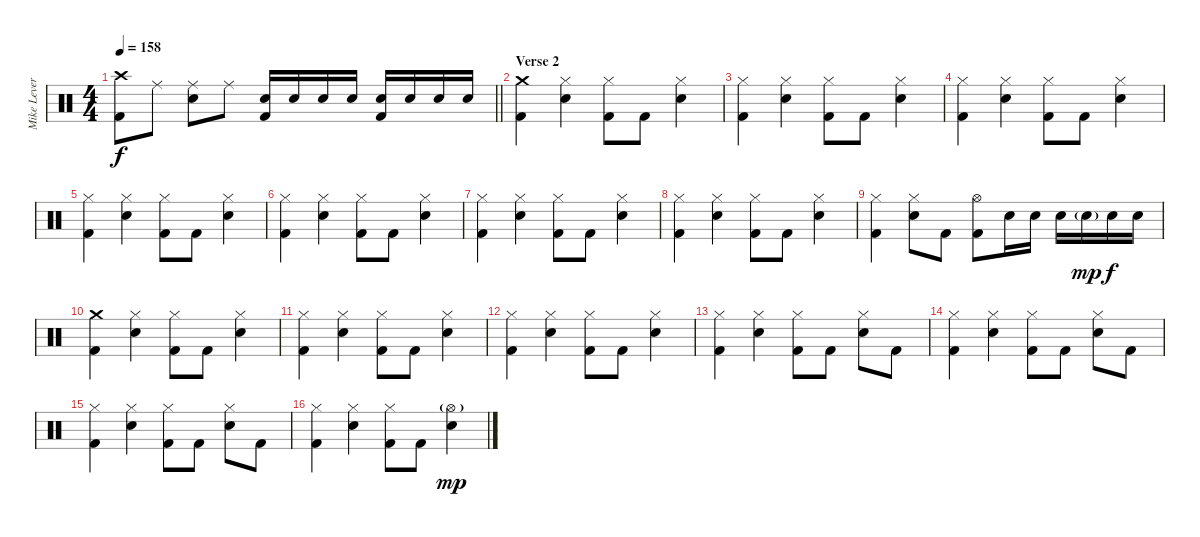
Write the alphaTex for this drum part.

\track ("Mike Leverence - Drums" "Mike Lever") {instrument percussion}
\staff {score}
\articulation defaults
\ts (4 4)
\tempo 158
\clef neutral
\barLineRight lightlight
\ks c
("Crash high (hit)" "Kick (hit) 2").8{dy f} "Ride (middle)".8 ("Ride (middle)" "Electric Snare (hit)").8 "Ride (middle)".8 ("Electric Snare (hit)" "Kick (hit) 2").16 "Electric Snare (hit)".16 "Electric Snare (hit)".16 "Electric Snare (hit)".16 ("Electric Snare (hit)" "Kick (hit) 2").16 "Electric Snare (hit)".16 "Electric Snare (hit)".16 "Electric Snare (hit)".16 |
\section ("" "Verse 2")
("Crash medium (hit)" "Kick (hit) 2").4 ("Hi-Hat (closed)" "Electric Snare (hit)").4 ("Hi-Hat (closed)" "Kick (hit) 2").8 "Kick (hit) 2".8 ("Hi-Hat (closed)" "Electric Snare (hit)").4 |
("Hi-Hat (closed)" "Kick (hit) 2").4 ("Hi-Hat (closed)" "Electric Snare (hit)").4 ("Hi-Hat (closed)" "Kick (hit) 2").8 "Kick (hit) 2".8 ("Hi-Hat (closed)" "Electric Snare (hit)").4 |
("Hi-Hat (closed)" "Kick (hit) 2").4 ("Hi-Hat (closed)" "Electric Snare (hit)").4 ("Hi-Hat (closed)" "Kick (hit) 2").8 "Kick (hit) 2".8 ("Hi-Hat (closed)" "Electric Snare (hit)").4 |
("Hi-Hat (closed)" "Kick (hit) 2").4 ("Hi-Hat (closed)" "Electric Snare (hit)").4 ("Hi-Hat (closed)" "Kick (hit) 2").8 "Kick (hit) 2".8 ("Hi-Hat (closed)" "Electric Snare (hit)").4 |
("Hi-Hat (closed)" "Kick (hit) 2").4 ("Hi-Hat (closed)" "Electric Snare (hit)").4 ("Hi-Hat (closed)" "Kick (hit) 2").8 "Kick (hit) 2".8 ("Hi-Hat (closed)" "Electric Snare (hit)").4 |
("Hi-Hat (closed)" "Kick (hit) 2").4 ("Hi-Hat (closed)" "Electric Snare (hit)").4 ("Hi-Hat (closed)" "Kick (hit) 2").8 "Kick (hit) 2".8 ("Hi-Hat (closed)" "Electric Snare (hit)").4 |
("Hi-Hat (closed)" "Kick (hit) 2").4 ("Hi-Hat (closed)" "Electric Snare (hit)").4 ("Hi-Hat (closed)" "Kick (hit) 2").8 "Kick (hit) 2".8 ("Hi-Hat (closed)" "Electric Snare (hit)").4 |
("Hi-Hat (closed)" "Kick (hit) 2").4 ("Hi-Hat (closed)" "Electric Snare (hit)").8 "Kick (hit) 2".8 ("Hi-Hat (open)" "Kick (hit) 2").8 "Electric Snare (hit)".16 "Electric Snare (hit)".16 "Electric Snare (hit)".16 "Electric Snare (hit)"{g}.16{dy mp} "Electric Snare (hit)".16{dy f} "Electric Snare (hit)".16 |
("Crash medium (hit)" "Kick (hit) 2").4 ("Hi-Hat (closed)" "Electric Snare (hit)").4 ("Hi-Hat (closed)" "Kick (hit) 2").8 "Kick (hit) 2".8 ("Hi-Hat (closed)" "Electric Snare (hit)").4 |
("Hi-Hat (closed)" "Kick (hit) 2").4 ("Hi-Hat (closed)" "Electric Snare (hit)").4 ("Hi-Hat (closed)" "Kick (hit) 2").8 "Kick (hit) 2".8 ("Hi-Hat (closed)" "Electric Snare (hit)").4 |
("Hi-Hat (closed)" "Kick (hit) 2").4 ("Hi-Hat (closed)" "Electric Snare (hit)").4 ("Hi-Hat (closed)" "Kick (hit) 2").8 "Kick (hit) 2".8 ("Hi-Hat (closed)" "Electric Snare (hit)").4 |
("Hi-Hat (closed)" "Kick (hit) 2").4 ("Hi-Hat (closed)" "Electric Snare (hit)").4 ("Hi-Hat (closed)" "Kick (hit) 2").8 "Kick (hit) 2".8 ("Hi-Hat (closed)" "Electric Snare (hit)").8 "Kick (hit) 2".8 |
("Hi-Hat (closed)" "Kick (hit) 2").4 ("Hi-Hat (closed)" "Electric Snare (hit)").4 ("Hi-Hat (closed)" "Kick (hit) 2").8 "Kick (hit) 2".8 ("Hi-Hat (closed)" "Electric Snare (hit)").8 "Kick (hit) 2".8 |
("Hi-Hat (closed)" "Kick (hit) 2").4 ("Hi-Hat (closed)" "Electric Snare (hit)").4 ("Hi-Hat (closed)" "Kick (hit) 2").8 "Kick (hit) 2".8 ("Hi-Hat (closed)" "Electric Snare (hit)").8 "Kick (hit) 2".8 |
("Hi-Hat (closed)" "Kick (hit) 2").4 ("Hi-Hat (closed)" "Electric Snare (hit)").4 ("Hi-Hat (closed)" "Kick (hit) 2").8 "Kick (hit) 2".8 ("Hi-Hat (open)"{g} "Electric Snare (hit)").4{dy mp}
